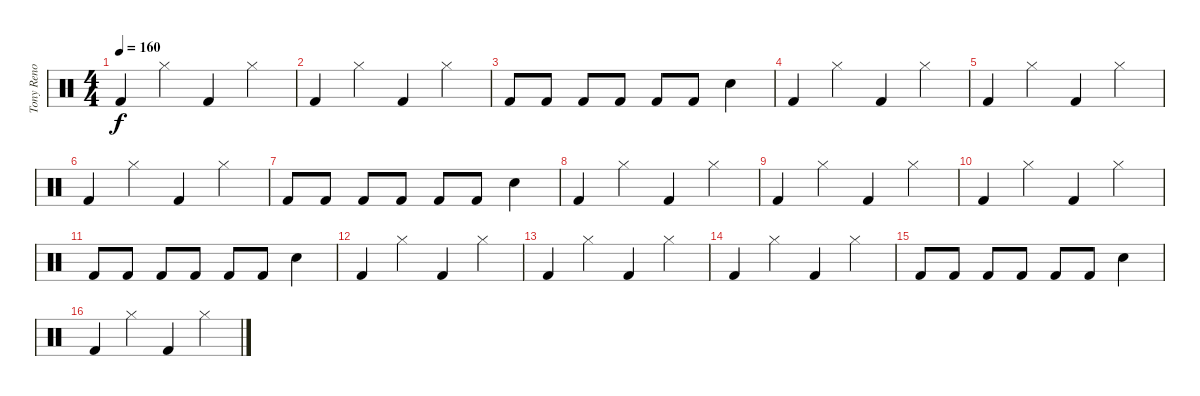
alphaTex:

\track ("Tony Reno" "Tony Reno") {instrument percussion}
\staff {score}
\articulation defaults
\ts (4 4)
\tempo 160
\clef neutral
\ks c "Kick (hit) 2".4{dy f} "Hi-Hat (closed)".4 "Kick (hit) 2".4 "Hi-Hat (closed)".4
|
"Kick (hit) 2".4 "Hi-Hat (closed)".4 "Kick (hit) 2".4 "Hi-Hat (closed)".4 |
"Kick (hit) 2".8 "Kick (hit) 2".8 "Kick (hit) 2".8 "Kick (hit) 2".8 "Kick (hit) 2".8 "Kick (hit) 2".8 "Snare (hit) 2".4 |
"Kick (hit) 2".4 "Hi-Hat (closed)".4 "Kick (hit) 2".4 "Hi-Hat (closed)".4 |
"Kick (hit) 2".4 "Hi-Hat (closed)".4 "Kick (hit) 2".4 "Hi-Hat (closed)".4 |
"Kick (hit) 2".4 "Hi-Hat (closed)".4 "Kick (hit) 2".4 "Hi-Hat (closed)".4 |
"Kick (hit) 2".8 "Kick (hit) 2".8 "Kick (hit) 2".8 "Kick (hit) 2".8 "Kick (hit) 2".8 "Kick (hit) 2".8 "Snare (hit) 2".4 |
"Kick (hit) 2".4 "Hi-Hat (closed)".4 "Kick (hit) 2".4 "Hi-Hat (closed)".4 |
"Kick (hit) 2".4 "Hi-Hat (closed)".4 "Kick (hit) 2".4 "Hi-Hat (closed)".4 |
"Kick (hit) 2".4 "Hi-Hat (closed)".4 "Kick (hit) 2".4 "Hi-Hat (closed)".4 |
"Kick (hit) 2".8 "Kick (hit) 2".8 "Kick (hit) 2".8 "Kick (hit) 2".8 "Kick (hit) 2".8 "Kick (hit) 2".8 "Snare (hit) 2".4 |
"Kick (hit) 2".4 "Hi-Hat (closed)".4 "Kick (hit) 2".4 "Hi-Hat (closed)".4 |
"Kick (hit) 2".4 "Hi-Hat (closed)".4 "Kick (hit) 2".4 "Hi-Hat (closed)".4 |
"Kick (hit) 2".4 "Hi-Hat (closed)".4 "Kick (hit) 2".4 "Hi-Hat (closed)".4 |
"Kick (hit) 2".8 "Kick (hit) 2".8 "Kick (hit) 2".8 "Kick (hit) 2".8 "Kick (hit) 2".8 "Kick (hit) 2".8 "Snare (hit) 2".4 |
"Kick (hit) 2".4 "Hi-Hat (closed)".4 "Kick (hit) 2".4 "Hi-Hat (closed)".4
